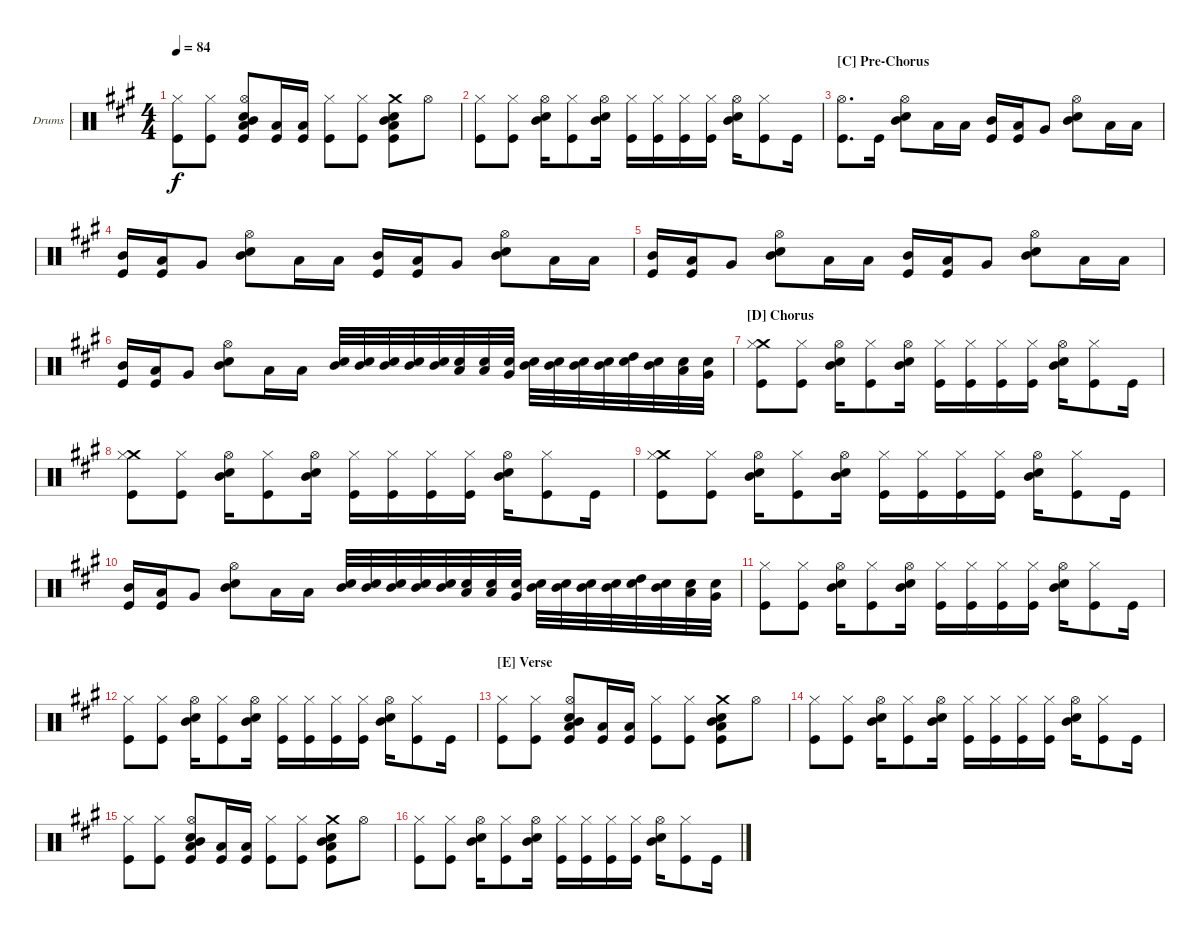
\defaultSystemsLayout 4
\bracketExtendMode groupsimilarinstruments
\firstSystemTrackNameOrientation horizontal
\otherSystemsTrackNameOrientation horizontal
\track ("Drumkit" "Drums") {instrument percussion}
\staff {score}
\articulation defaults
\ts (4 4)
\tempo 84
\clef neutral
\scale
1.05801
\ks a
("Hi-Hat (closed)" "Kick (hit)").8{dy f} ("Hi-Hat (closed)" "Kick (hit)").8 ("Snare (hit) 2" "Mid Tom (hit)" "Hi-Hat (open)" "Low Tom (hit)" "Kick (hit)").8 ("Low Tom (hit)" "Kick (hit)").16 ("Low Tom (hit)" "Kick (hit)").16 ("Hi-Hat (closed)" "Kick (hit)").8 ("Hi-Hat (closed)" "Kick (hit)").8 ("Snare (hit) 2" "Mid Tom (hit)" "Crash medium (hit)" "Low Tom (hit)" "Kick (hit)").8 "Hi-Hat (open)".8 |
\scale
0.941992 ("Kick (hit)" "Hi-Hat (closed)").8 ("Kick (hit)" "Hi-Hat (closed)").8 ("Snare (hit) 2" "Mid Tom (hit)" "Hi-Hat (open)").16 ("Kick (hit)" "Hi-Hat (closed)").8 ("Snare (hit) 2" "Mid Tom (hit)" "Hi-Hat (open)").16 ("Kick (hit)" "Hi-Hat (closed)").16 ("Kick (hit)" "Hi-Hat (closed)").16 ("Kick (hit)" "Hi-Hat (closed)").16 ("Kick (hit)" "Hi-Hat (closed)").16 ("Snare (hit) 2" "Mid Tom (hit)" "Hi-Hat (open)").16 ("Kick (hit)" "Hi-Hat (closed)").8 "Kick (hit)".16 |
\section ("C" "Pre-Chorus")
\scale
1.05801 ("Hi-Hat (open)" "Kick (hit)").8{d} "Kick (hit)".16 ("Snare (hit) 2" "Mid Tom (hit)" "Hi-Hat (open)").8 "Low Tom (hit)".16 "Low Tom (hit)".16 ("Mid Tom (hit)" "Kick (hit)").16 ("Low Tom (hit)" "Kick (hit)").16 "Very Low Tom (hit)".8 ("Snare (hit) 2" "Mid Tom (hit)" "Hi-Hat (open)").8 "Low Tom (hit)".16 "Low Tom (hit)".16 |
\scale
0.941992 ("Mid Tom (hit)" "Kick (hit)").16 ("Low Tom (hit)" "Kick (hit)").16 "Very Low Tom (hit)".8 ("Snare (hit) 2" "Mid Tom (hit)" "Hi-Hat (open)").8 "Low Tom (hit)".16 "Low Tom (hit)".16 ("Mid Tom (hit)" "Kick (hit)").16 ("Low Tom (hit)" "Kick (hit)").16 "Very Low Tom (hit)".8 ("Snare (hit) 2" "Mid Tom (hit)" "Hi-Hat (open)").8 "Low Tom (hit)".16 "Low Tom (hit)".16 |
\scale
1.05801 ("Mid Tom (hit)" "Kick (hit)").16 ("Low Tom (hit)" "Kick (hit)").16 "Very Low Tom (hit)".8 ("Snare (hit) 2" "Mid Tom (hit)" "Hi-Hat (open)").8 "Low Tom (hit)".16 "Low Tom (hit)".16 ("Mid Tom (hit)" "Kick (hit)").16 ("Low Tom (hit)" "Kick (hit)").16 "Very Low Tom (hit)".8 ("Snare (hit) 2" "Mid Tom (hit)" "Hi-Hat (open)").8 "Low Tom (hit)".16 "Low Tom (hit)".16 |
\scale
0.941992 ("Mid Tom (hit)" "Kick (hit)").16 ("Low Tom (hit)" "Kick (hit)").16 "Very Low Tom (hit)".8 ("Snare (hit) 2" "Mid Tom (hit)" "Hi-Hat (open)").8 "Low Tom (hit)".16 "Low Tom (hit)".16 ("Mid Tom (hit)" "Snare (hit) 2").32 ("Mid Tom (hit)" "Snare (hit) 2").32 ("Mid Tom (hit)" "Snare (hit) 2").32 ("Mid Tom (hit)" "Snare (hit) 2").32 ("Mid Tom (hit)" "Snare (hit) 2").32 ("Low Tom (hit)" "Snare (hit) 2").32 ("Low Tom (hit)" "Snare (hit) 2").32 ("Very Low Tom (hit)" "Snare (hit) 2").32 ("Mid Tom (hit)" "Snare (hit) 2").32 ("Mid Tom (hit)" "Snare (hit) 2").32 ("Mid Tom (hit)" "Snare (hit) 2").32 ("Mid Tom (hit)" "Snare (hit) 2").32 ("High Tom (hit)" "Snare (hit) 2").32 ("Mid Tom (hit)" "Snare (hit) 2").32 ("Low Tom (hit)" "Snare (hit) 2").32 ("Very Low Tom (hit)" "Snare (hit) 2").32 |
\section ("D" "Chorus")
\scale
1.05801 ("Crash medium (hit)" "Kick (hit)" "Hi-Hat (closed)").8 ("Kick (hit)" "Hi-Hat (closed)").8 ("Snare (hit) 2" "Mid Tom (hit)" "Hi-Hat (open)").16 ("Kick (hit)" "Hi-Hat (closed)").8 ("Snare (hit) 2" "Mid Tom (hit)" "Hi-Hat (open)").16 ("Kick (hit)" "Hi-Hat (closed)").16 ("Kick (hit)" "Hi-Hat (closed)").16 ("Kick (hit)" "Hi-Hat (closed)").16 ("Kick (hit)" "Hi-Hat (closed)").16 ("Snare (hit) 2" "Mid Tom (hit)" "Hi-Hat (open)").16 ("Kick (hit)" "Hi-Hat (closed)").8 "Kick (hit)".16 |
\scale
0.941992 ("Crash medium (hit)" "Kick (hit)" "Hi-Hat (closed)").8 ("Kick (hit)" "Hi-Hat (closed)").8 ("Snare (hit) 2" "Mid Tom (hit)" "Hi-Hat (open)").16 ("Kick (hit)" "Hi-Hat (closed)").8 ("Snare (hit) 2" "Mid Tom (hit)" "Hi-Hat (open)").16 ("Kick (hit)" "Hi-Hat (closed)").16 ("Kick (hit)" "Hi-Hat (closed)").16 ("Kick (hit)" "Hi-Hat (closed)").16 ("Kick (hit)" "Hi-Hat (closed)").16 ("Snare (hit) 2" "Mid Tom (hit)" "Hi-Hat (open)").16 ("Kick (hit)" "Hi-Hat (closed)").8 "Kick (hit)".16 |
\scale
1.05801 ("Crash medium (hit)" "Kick (hit)" "Hi-Hat (closed)").8 ("Kick (hit)" "Hi-Hat (closed)").8 ("Snare (hit) 2" "Mid Tom (hit)" "Hi-Hat (open)").16 ("Kick (hit)" "Hi-Hat (closed)").8 ("Snare (hit) 2" "Mid Tom (hit)" "Hi-Hat (open)").16 ("Kick (hit)" "Hi-Hat (closed)").16 ("Kick (hit)" "Hi-Hat (closed)").16 ("Kick (hit)" "Hi-Hat (closed)").16 ("Kick (hit)" "Hi-Hat (closed)").16 ("Snare (hit) 2" "Mid Tom (hit)" "Hi-Hat (open)").16 ("Kick (hit)" "Hi-Hat (closed)").8 "Kick (hit)".16 |
\scale
0.941992 ("Mid Tom (hit)" "Kick (hit)").16 ("Low Tom (hit)" "Kick (hit)").16 "Very Low Tom (hit)".8 ("Snare (hit) 2" "Mid Tom (hit)" "Hi-Hat (open)").8 "Low Tom (hit)".16 "Low Tom (hit)".16 ("Mid Tom (hit)" "Snare (hit) 2").32 ("Mid Tom (hit)" "Snare (hit) 2").32 ("Mid Tom (hit)" "Snare (hit) 2").32 ("Mid Tom (hit)" "Snare (hit) 2").32 ("Mid Tom (hit)" "Snare (hit) 2").32 ("Low Tom (hit)" "Snare (hit) 2").32 ("Low Tom (hit)" "Snare (hit) 2").32 ("Very Low Tom (hit)" "Snare (hit) 2").32 ("Mid Tom (hit)" "Snare (hit) 2").32 ("Mid Tom (hit)" "Snare (hit) 2").32 ("Mid Tom (hit)" "Snare (hit) 2").32 ("Mid Tom (hit)" "Snare (hit) 2").32 ("High Tom (hit)" "Snare (hit) 2").32 ("Mid Tom (hit)" "Snare (hit) 2").32 ("Low Tom (hit)" "Snare (hit) 2").32 ("Very Low Tom (hit)" "Snare (hit) 2").32 |
\scale
1.05801 ("Kick (hit)" "Hi-Hat (closed)").8 ("Kick (hit)" "Hi-Hat (closed)").8 ("Snare (hit) 2" "Mid Tom (hit)" "Hi-Hat (open)").16 ("Kick (hit)" "Hi-Hat (closed)").8 ("Snare (hit) 2" "Mid Tom (hit)" "Hi-Hat (open)").16 ("Kick (hit)" "Hi-Hat (closed)").16 ("Kick (hit)" "Hi-Hat (closed)").16 ("Kick (hit)" "Hi-Hat (closed)").16 ("Kick (hit)" "Hi-Hat (closed)").16 ("Snare (hit) 2" "Mid Tom (hit)" "Hi-Hat (open)").16 ("Kick (hit)" "Hi-Hat (closed)").8 "Kick (hit)".16 |
\scale
0.941992 ("Kick (hit)" "Hi-Hat (closed)").8 ("Kick (hit)" "Hi-Hat (closed)").8 ("Snare (hit) 2" "Mid Tom (hit)" "Hi-Hat (open)").16 ("Kick (hit)" "Hi-Hat (closed)").8 ("Snare (hit) 2" "Mid Tom (hit)" "Hi-Hat (open)").16 ("Kick (hit)" "Hi-Hat (closed)").16 ("Kick (hit)" "Hi-Hat (closed)").16 ("Kick (hit)" "Hi-Hat (closed)").16 ("Kick (hit)" "Hi-Hat (closed)").16 ("Snare (hit) 2" "Mid Tom (hit)" "Hi-Hat (open)").16 ("Kick (hit)" "Hi-Hat (closed)").8 "Kick (hit)".16 |
\section ("E" "Verse")
\scale
1.05801 ("Hi-Hat (closed)" "Kick (hit)").8 ("Hi-Hat (closed)" "Kick (hit)").8 ("Snare (hit) 2" "Mid Tom (hit)" "Hi-Hat (open)" "Low Tom (hit)" "Kick (hit)").8 ("Low Tom (hit)" "Kick (hit)").16 ("Low Tom (hit)" "Kick (hit)").16 ("Hi-Hat (closed)" "Kick (hit)").8 ("Hi-Hat (closed)" "Kick (hit)").8 ("Snare (hit) 2" "Mid Tom (hit)" "Crash medium (hit)" "Low Tom (hit)" "Kick (hit)").8 "Hi-Hat (open)".8 |
\scale
0.941992 ("Kick (hit)" "Hi-Hat (closed)").8 ("Kick (hit)" "Hi-Hat (closed)").8 ("Snare (hit) 2" "Mid Tom (hit)" "Hi-Hat (open)").16 ("Kick (hit)" "Hi-Hat (closed)").8 ("Snare (hit) 2" "Mid Tom (hit)" "Hi-Hat (open)").16 ("Kick (hit)" "Hi-Hat (closed)").16 ("Kick (hit)" "Hi-Hat (closed)").16 ("Kick (hit)" "Hi-Hat (closed)").16 ("Kick (hit)" "Hi-Hat (closed)").16 ("Snare (hit) 2" "Mid Tom (hit)" "Hi-Hat (open)").16 ("Kick (hit)" "Hi-Hat (closed)").8 "Kick (hit)".16 |
\scale
1.05801 ("Hi-Hat (closed)" "Kick (hit)").8 ("Hi-Hat (closed)" "Kick (hit)").8 ("Snare (hit) 2" "Mid Tom (hit)" "Hi-Hat (open)" "Low Tom (hit)" "Kick (hit)").8 ("Low Tom (hit)" "Kick (hit)").16 ("Low Tom (hit)" "Kick (hit)").16 ("Hi-Hat (closed)" "Kick (hit)").8 ("Hi-Hat (closed)" "Kick (hit)").8 ("Snare (hit) 2" "Mid Tom (hit)" "Crash medium (hit)" "Low Tom (hit)" "Kick (hit)").8 "Hi-Hat (open)".8 |
\scale
0.941992 ("Kick (hit)" "Hi-Hat (closed)").8 ("Kick (hit)" "Hi-Hat (closed)").8 ("Snare (hit) 2" "Mid Tom (hit)" "Hi-Hat (open)").16 ("Kick (hit)" "Hi-Hat (closed)").8 ("Snare (hit) 2" "Mid Tom (hit)" "Hi-Hat (open)").16 ("Kick (hit)" "Hi-Hat (closed)").16 ("Kick (hit)" "Hi-Hat (closed)").16 ("Kick (hit)" "Hi-Hat (closed)").16 ("Kick (hit)" "Hi-Hat (closed)").16 ("Snare (hit) 2" "Mid Tom (hit)" "Hi-Hat (open)").16 ("Kick (hit)" "Hi-Hat (closed)").8 "Kick (hit)".16
